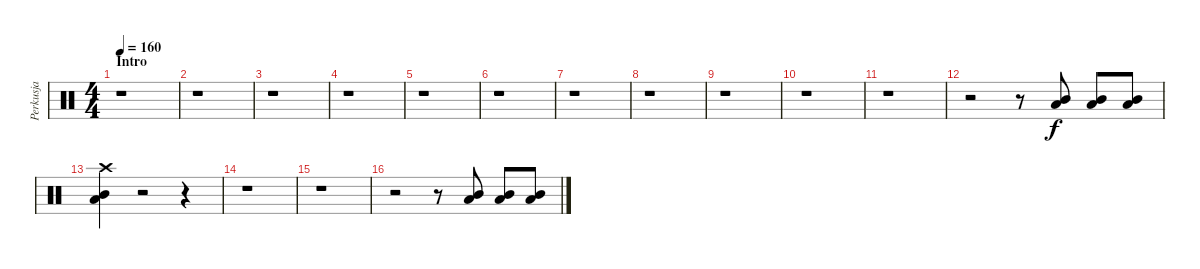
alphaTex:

\track ("Perkusja" "Perkusja") {instrument percussion}
\staff {score}
\articulation defaults
\ts (4 4)
\section ("" "Intro")
\tempo 160
\clef neutral
\ks c
r.1{dy f} |
r.1 |
r.1 |
r.1 |
r.1 |
r.1 |
r.1 |
r.1 |
r.1 |
r.1 |
r.1 |
r.2 r.8 ("Low Tom (hit)" "Mid Tom (hit)").8 ("Low Tom (hit)" "Mid Tom (hit)").8 ("Low Tom (hit)" "Mid Tom (hit)").8 |
("Crash high (hit)" "Low Tom (hit)" "Mid Tom (hit)").4 r.2 r.4 |
r.1 |
r.1 |
r.2 r.8 ("Low Tom (hit)" "Mid Tom (hit)").8 ("Low Tom (hit)" "Mid Tom (hit)").8 ("Low Tom (hit)" "Mid Tom (hit)").8
